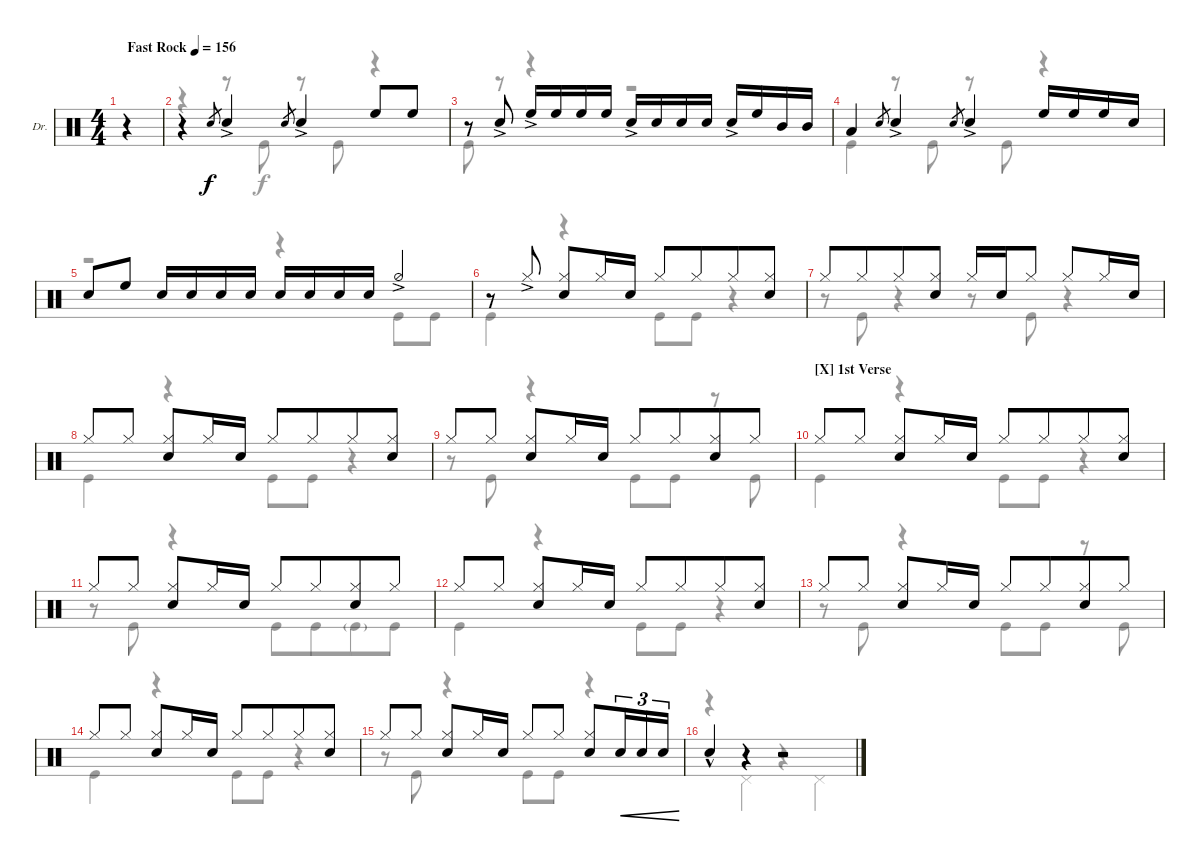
\defaultSystemsLayout 4
\bracketExtendMode groupsimilarinstruments
\firstSystemTrackNameOrientation horizontal
\otherSystemsTrackNameOrientation horizontal
\track ("Drums" "Dr.") {instrument percussion}
\staff {score}
\articulation defaults
\voice
\ts (4 4)
\ac
\tempo (156 "Fast Rock")
\clef neutral
\ks c
r.4{dy f} |
r.4 "Snare (hit) 2".8{gr} "Snare (hit) 2"{ac}.4 "Snare (hit) 2".8{gr} "Snare (hit) 2"{ac}.4 "High Floor Tom (hit)".8 "High Floor Tom (hit)".8 |
r.8 "Snare (hit) 2"{ac}.8 "High Floor Tom (hit)"{ac}.16 "High Floor Tom (hit)".16 "High Floor Tom (hit)".16 "High Floor Tom (hit)".16 "Snare (hit) 2"{ac}.16 "Snare (hit) 2".16 "Snare (hit) 2".16 "Snare (hit) 2".16 "Snare (hit) 2"{ac}.16 "High Floor Tom (hit)".16 "Mid Tom (hit)".16 "Mid Tom (hit)".16 |
"Low Tom (hit)".4 "Snare (hit) 2".8{gr} "Snare (hit) 2"{ac}.4 "Snare (hit) 2".8{gr} "Snare (hit) 2"{ac}.4 "High Floor Tom (hit)".16 "High Floor Tom (hit)".16 "High Floor Tom (hit)".16 "Snare (hit) 2".16 |
"Snare (hit) 2".8 "High Floor Tom (hit)".8 "Snare (hit) 2".16 "Snare (hit) 2".16 "Snare (hit) 2".16 "Snare (hit) 2".16 "Snare (hit) 2".16 "Snare (hit) 2".16 "Snare (hit) 2".16 "Snare (hit) 2".16 "Hi-Hat (half)"{ac}.4 |
r.8 "Hi-Hat (closed)"{ac}.8 ("Hi-Hat (closed)" "Snare (hit) 2").8 "Hi-Hat (closed)".16 "Snare (hit) 2".16 "Hi-Hat (closed)".8 "Hi-Hat (closed)".8{beam merge} "Hi-Hat (closed)".8 ("Hi-Hat (closed)" "Snare (hit) 2").8 |
"Hi-Hat (closed)".8 "Hi-Hat (closed)".8{beam merge} "Hi-Hat (closed)".8 ("Hi-Hat (closed)" "Snare (hit) 2").8 "Hi-Hat (closed)".16 "Snare (hit) 2".16 "Hi-Hat (closed)".8 "Hi-Hat (closed)".8 "Hi-Hat (closed)".16 "Snare (hit) 2".16 |
"Hi-Hat (closed)".8 "Hi-Hat (closed)".8 ("Hi-Hat (closed)" "Snare (hit) 2").8 "Hi-Hat (closed)".16 "Snare (hit) 2".16 "Hi-Hat (closed)".8 "Hi-Hat (closed)".8{beam merge} "Hi-Hat (closed)".8 ("Hi-Hat (closed)" "Snare (hit) 2").8 |
"Hi-Hat (closed)".8 "Hi-Hat (closed)".8 ("Hi-Hat (closed)" "Snare (hit) 2").8 "Hi-Hat (closed)".16 "Snare (hit) 2".16 "Hi-Hat (closed)".8 "Hi-Hat (closed)".8{beam merge} ("Hi-Hat (closed)" "Snare (hit) 2").8 "Hi-Hat (closed)".8 |
\section ("X" "1st Verse")
"Hi-Hat (closed)".8 "Hi-Hat (closed)".8 ("Hi-Hat (closed)" "Snare (hit) 2").8 "Hi-Hat (closed)".16 "Snare (hit) 2".16 "Hi-Hat (closed)".8 "Hi-Hat (closed)".8{beam merge} "Hi-Hat (closed)".8 ("Hi-Hat (closed)" "Snare (hit) 2").8 |
"Hi-Hat (closed)".8 "Hi-Hat (closed)".8 ("Hi-Hat (closed)" "Snare (hit) 2").8 "Hi-Hat (closed)".16 "Snare (hit) 2".16 "Hi-Hat (closed)".8 "Hi-Hat (closed)".8{beam merge} ("Hi-Hat (closed)" "Snare (hit) 2").8 "Hi-Hat (closed)".8 |
"Hi-Hat (closed)".8 "Hi-Hat (closed)".8 ("Hi-Hat (closed)" "Snare (hit) 2").8 "Hi-Hat (closed)".16 "Snare (hit) 2".16 "Hi-Hat (closed)".8 "Hi-Hat (closed)".8{beam merge} "Hi-Hat (closed)".8 ("Hi-Hat (closed)" "Snare (hit) 2").8 |
"Hi-Hat (closed)".8 "Hi-Hat (closed)".8 ("Hi-Hat (closed)" "Snare (hit) 2").8 "Hi-Hat (closed)".16 "Snare (hit) 2".16 "Hi-Hat (closed)".8 "Hi-Hat (closed)".8{beam merge} ("Hi-Hat (closed)" "Snare (hit) 2").8 "Hi-Hat (closed)".8 |
"Hi-Hat (closed)".8 "Hi-Hat (closed)".8 ("Hi-Hat (closed)" "Snare (hit) 2").8 "Hi-Hat (closed)".16 "Snare (hit) 2".16 "Hi-Hat (closed)".8 "Hi-Hat (closed)".8{beam merge} "Hi-Hat (closed)".8 ("Hi-Hat (closed)" "Snare (hit) 2").8 |
\scale
0.342792 "Hi-Hat (closed)".8 "Hi-Hat (closed)".8 ("Hi-Hat (closed)" "Snare (hit) 2").8 "Hi-Hat (closed)".16 "Snare (hit) 2".16 "Hi-Hat (closed)".8 "Hi-Hat (closed)".8 ("Hi-Hat (closed)" "Snare (hit) 2").8{beam merge} "Snare (hit) 2".16{tu (3 2) cre} "Snare (hit) 2".16{tu (3 2) cre} "Snare (hit) 2".16{tu (3 2) cre} |
\scale
0.235406 "Snare (hit) 2"{hac}.4 r.4 r.2
\voice
\clef neutral
\ottava regular
\simile none
\ks c
|
r.4 r.8 "Kick (hit)".8 r.8 "Kick (hit)".8 r.4 |
"Kick (hit)".8 r.8 r.4 r.2 |
"Kick (hit)".4 r.8 "Kick (hit)".8 r.8 "Kick (hit)".8 r.4 |
r.2 r.4 "Kick (hit)".8 "Kick (hit)".8 |
"Kick (hit)".4 r.4 "Kick (hit)".8 "Kick (hit)".8 r.4 |
r.8 "Kick (hit)".8 r.4 r.8 "Kick (hit)".8 r.4 |
"Kick (hit)".4 r.4 "Kick (hit)".8 "Kick (hit)".8 r.4 |
r.8 "Kick (hit)".8 r.4 "Kick (hit)".8 "Kick (hit)".8 r.8 "Kick (hit)".8 |
"Kick (hit)".4 r.4 "Kick (hit)".8 "Kick (hit)".8 r.4 |
r.8 "Kick (hit)".8 r.4 "Kick (hit)".8 "Kick (hit)".8{beam merge} "Kick (hit)"{g}.8 "Kick (hit)".8 |
"Kick (hit)".4 r.4 "Kick (hit)".8 "Kick (hit)".8 r.4 |
r.8 "Kick (hit)".8 r.4 "Kick (hit)".8 "Kick (hit)".8 r.8 "Kick (hit)".8 |
"Kick (hit)".4 r.4 "Kick (hit)".8 "Kick (hit)".8 r.4 |
\scale
0.342792 r.8 "Kick (hit)".8 r.4 "Kick (hit)".8 "Kick (hit)".8 r.4 |
\scale
0.235406 r.4 "Pedal Hi-Hat (hit)".4 r.4 "Pedal Hi-Hat (hit)".4
